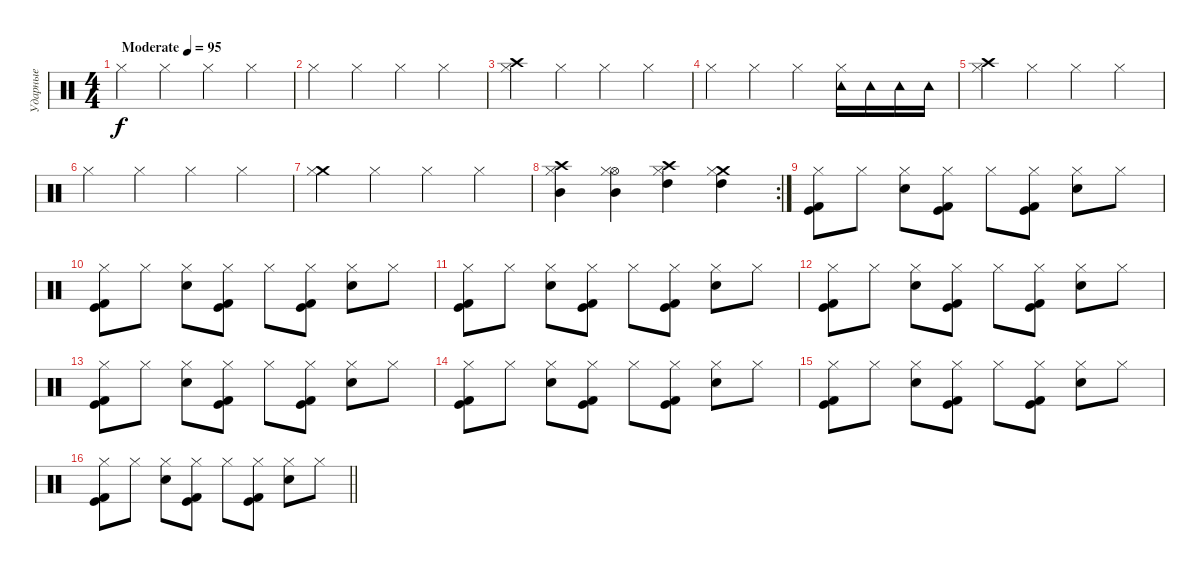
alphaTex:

\track ("Ударные" "Ударные") {instrument percussion}
\staff {score}
\articulation defaults
\ts (4 4)
\tempo (95 "Moderate")
\clef neutral
\ks c "Hi-Hat (closed)".4{dy f} "Hi-Hat (closed)".4 "Hi-Hat (closed)".4 "Hi-Hat (closed)".4
|
"Hi-Hat (closed)".4 "Hi-Hat (closed)".4 "Hi-Hat (closed)".4 "Hi-Hat (closed)".4 |
("Hi-Hat (closed)" "Crash high (hit)").4 "Hi-Hat (closed)".4 "Hi-Hat (closed)".4 "Hi-Hat (closed)".4 |
"Hi-Hat (closed)".4 "Hi-Hat (closed)".4 "Hi-Hat (closed)".4 ("Tambourine (hit)" "Hi-Hat (closed)").16 "Tambourine (hit)".16 "Tambourine (hit)".16 "Tambourine (hit)".16 |
("Crash high (hit)" "Hi-Hat (closed)").4 "Hi-Hat (closed)".4 "Hi-Hat (closed)".4 "Hi-Hat (closed)".4 |
"Hi-Hat (closed)".4 "Hi-Hat (closed)".4 "Hi-Hat (closed)".4 "Hi-Hat (closed)".4 |
("Crash medium (hit)" "Hi-Hat (closed)").4 "Hi-Hat (closed)".4 "Hi-Hat (closed)".4 "Hi-Hat (closed)".4 |
\rc 2
("Crash high (hit)" "Hi-Hat (closed)" "Mid Tom (hit)").4 ("Hi-Hat (open)" "Hi-Hat (closed)" "Mid Tom (hit)").4 ("Crash high (hit)" "Hi-Hat (closed)" "High Tom (hit)").4 ("Crash medium (hit)" "Hi-Hat (closed)" "High Tom (hit)").4 |
("Kick (hit) 2" "Hi-Hat (closed)" "Kick (hit)").8 "Hi-Hat (closed)".8 ("Hi-Hat (closed)" "Snare (hit) 2").8 ("Kick (hit) 2" "Hi-Hat (closed)" "Kick (hit)").8 "Hi-Hat (closed)".8 ("Kick (hit) 2" "Hi-Hat (closed)" "Kick (hit)").8 ("Hi-Hat (closed)" "Snare (hit) 2").8 "Hi-Hat (closed)".8 |
("Kick (hit) 2" "Hi-Hat (closed)" "Kick (hit)").8 "Hi-Hat (closed)".8 ("Hi-Hat (closed)" "Snare (hit) 2").8 ("Kick (hit) 2" "Hi-Hat (closed)" "Kick (hit)").8 "Hi-Hat (closed)".8 ("Kick (hit) 2" "Hi-Hat (closed)" "Kick (hit)").8 ("Hi-Hat (closed)" "Snare (hit) 2").8 "Hi-Hat (closed)".8 |
("Kick (hit) 2" "Hi-Hat (closed)" "Kick (hit)").8 "Hi-Hat (closed)".8 ("Hi-Hat (closed)" "Snare (hit) 2").8 ("Kick (hit) 2" "Hi-Hat (closed)" "Kick (hit)").8 "Hi-Hat (closed)".8 ("Kick (hit) 2" "Hi-Hat (closed)" "Kick (hit)").8 ("Hi-Hat (closed)" "Snare (hit) 2").8 "Hi-Hat (closed)".8 |
("Kick (hit) 2" "Hi-Hat (closed)" "Kick (hit)").8 "Hi-Hat (closed)".8 ("Hi-Hat (closed)" "Snare (hit) 2").8 ("Kick (hit) 2" "Hi-Hat (closed)" "Kick (hit)").8 "Hi-Hat (closed)".8 ("Kick (hit) 2" "Hi-Hat (closed)" "Kick (hit)").8 ("Hi-Hat (closed)" "Snare (hit) 2").8 "Hi-Hat (closed)".8 |
("Kick (hit) 2" "Hi-Hat (closed)" "Kick (hit)").8 "Hi-Hat (closed)".8 ("Hi-Hat (closed)" "Snare (hit) 2").8 ("Kick (hit) 2" "Hi-Hat (closed)" "Kick (hit)").8 "Hi-Hat (closed)".8 ("Kick (hit) 2" "Hi-Hat (closed)" "Kick (hit)").8 ("Hi-Hat (closed)" "Snare (hit) 2").8 "Hi-Hat (closed)".8 |
("Kick (hit) 2" "Hi-Hat (closed)" "Kick (hit)").8 "Hi-Hat (closed)".8 ("Hi-Hat (closed)" "Snare (hit) 2").8 ("Kick (hit) 2" "Hi-Hat (closed)" "Kick (hit)").8 "Hi-Hat (closed)".8 ("Kick (hit) 2" "Hi-Hat (closed)" "Kick (hit)").8 ("Hi-Hat (closed)" "Snare (hit) 2").8 "Hi-Hat (closed)".8 |
("Kick (hit) 2" "Hi-Hat (closed)" "Kick (hit)").8 "Hi-Hat (closed)".8 ("Hi-Hat (closed)" "Snare (hit) 2").8 ("Kick (hit) 2" "Hi-Hat (closed)" "Kick (hit)").8 "Hi-Hat (closed)".8 ("Kick (hit) 2" "Hi-Hat (closed)" "Kick (hit)").8 ("Hi-Hat (closed)" "Snare (hit) 2").8 "Hi-Hat (closed)".8 |
\barLineRight lightlight
("Kick (hit) 2" "Hi-Hat (closed)" "Kick (hit)").8 "Hi-Hat (closed)".8 ("Hi-Hat (closed)" "Snare (hit) 2").8 ("Kick (hit) 2" "Hi-Hat (closed)" "Kick (hit)").8 "Hi-Hat (closed)".8 ("Kick (hit) 2" "Hi-Hat (closed)" "Kick (hit)").8 ("Hi-Hat (closed)" "Snare (hit) 2").8 "Hi-Hat (closed)".8
